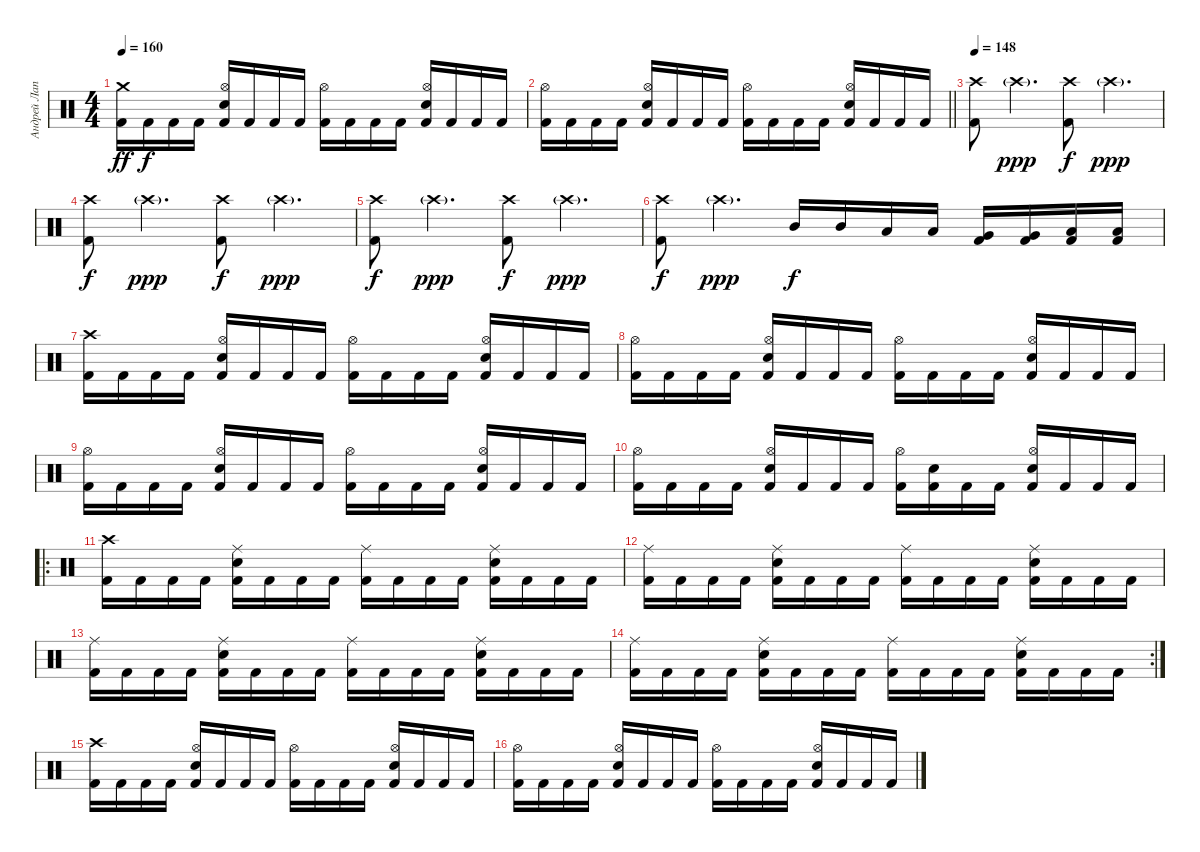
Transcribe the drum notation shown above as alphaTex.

\track ("Андрей Лаптев" "Андрей Лап") {instrument percussion}
\staff {score}
\articulation defaults
\ts (4 4)
\tempo 160
\clef neutral
\ks c
("Crash medium (hit)" "Kick (hit) 2").16{dy ff} "Kick (hit) 2".16{dy f} "Kick (hit) 2".16 "Kick (hit) 2".16 ("Hi-Hat (open)" "Electric Snare (hit)" "Kick (hit) 2").16 "Kick (hit) 2".16 "Kick (hit) 2".16 "Kick (hit) 2".16 ("Hi-Hat (open)" "Kick (hit) 2").16 "Kick (hit) 2".16 "Kick (hit) 2".16 "Kick (hit) 2".16 ("Hi-Hat (open)" "Electric Snare (hit)" "Kick (hit) 2").16 "Kick (hit) 2".16 "Kick (hit) 2".16 "Kick (hit) 2".16 |
\barLineRight lightlight
("Hi-Hat (open)" "Kick (hit) 2").16 "Kick (hit) 2".16 "Kick (hit) 2".16 "Kick (hit) 2".16 ("Hi-Hat (open)" "Electric Snare (hit)" "Kick (hit) 2").16 "Kick (hit) 2".16 "Kick (hit) 2".16 "Kick (hit) 2".16 ("Hi-Hat (open)" "Kick (hit) 2").16 "Kick (hit) 2".16 "Kick (hit) 2".16 "Kick (hit) 2".16 ("Hi-Hat (open)" "Electric Snare (hit)" "Kick (hit) 2").16 "Kick (hit) 2".16 "Kick (hit) 2".16 "Kick (hit) 2".16 |
\section ("" "")
\tempo 148
("Crash high (hit)" "Kick (hit) 2").8 "Crash high (hit)"{g}.4{d dy ppp} ("Crash high (hit)" "Kick (hit) 2").8{dy f} "Crash high (hit)"{g}.4{d dy ppp} |
("Crash high (hit)" "Kick (hit) 2").8{dy f} "Crash high (hit)"{g}.4{d dy ppp} ("Crash high (hit)" "Kick (hit) 2").8{dy f} "Crash high (hit)"{g}.4{d dy ppp} |
("Crash high (hit)" "Kick (hit) 2").8{dy f} "Crash high (hit)"{g}.4{d dy ppp} ("Crash high (hit)" "Kick (hit) 2").8{dy f} "Crash high (hit)"{g}.4{d dy ppp} |
("Crash high (hit)" "Kick (hit) 2").8{dy f} "Crash high (hit)"{g}.4{d dy ppp} "Mid Tom (hit)".16{dy f} "Mid Tom (hit)".16 "Low Tom (hit)".16 "Low Tom (hit)".16 ("Very Low Tom (hit)" "Kick (hit) 2").16 ("Very Low Tom (hit)" "Kick (hit) 2").16 ("Low Floor Tom (hit)" "Kick (hit) 2").16 ("Low Floor Tom (hit)" "Kick (hit) 2").16 |
("Crash high (hit)" "Kick (hit) 2").16 "Kick (hit) 2".16 "Kick (hit) 2".16 "Kick (hit) 2".16 ("Hi-Hat (open)" "Electric Snare (hit)" "Kick (hit) 2").16 "Kick (hit) 2".16 "Kick (hit) 2".16 "Kick (hit) 2".16 ("Hi-Hat (open)" "Kick (hit) 2").16 "Kick (hit) 2".16 "Kick (hit) 2".16 "Kick (hit) 2".16 ("Hi-Hat (open)" "Electric Snare (hit)" "Kick (hit) 2").16 "Kick (hit) 2".16 "Kick (hit) 2".16 "Kick (hit) 2".16 |
("Hi-Hat (open)" "Kick (hit) 2").16 "Kick (hit) 2".16 "Kick (hit) 2".16 "Kick (hit) 2".16 ("Hi-Hat (open)" "Electric Snare (hit)" "Kick (hit) 2").16 "Kick (hit) 2".16 "Kick (hit) 2".16 "Kick (hit) 2".16 ("Hi-Hat (open)" "Kick (hit) 2").16 "Kick (hit) 2".16 "Kick (hit) 2".16 "Kick (hit) 2".16 ("Hi-Hat (open)" "Electric Snare (hit)" "Kick (hit) 2").16 "Kick (hit) 2".16 "Kick (hit) 2".16 "Kick (hit) 2".16 |
("Hi-Hat (open)" "Kick (hit) 2").16 "Kick (hit) 2".16 "Kick (hit) 2".16 "Kick (hit) 2".16 ("Hi-Hat (open)" "Electric Snare (hit)" "Kick (hit) 2").16 "Kick (hit) 2".16 "Kick (hit) 2".16 "Kick (hit) 2".16 ("Hi-Hat (open)" "Kick (hit) 2").16 "Kick (hit) 2".16 "Kick (hit) 2".16 "Kick (hit) 2".16 ("Hi-Hat (open)" "Electric Snare (hit)" "Kick (hit) 2").16 "Kick (hit) 2".16 "Kick (hit) 2".16 "Kick (hit) 2".16 |
("Hi-Hat (open)" "Kick (hit) 2").16 "Kick (hit) 2".16 "Kick (hit) 2".16 "Kick (hit) 2".16 ("Hi-Hat (open)" "Electric Snare (hit)" "Kick (hit) 2").16 "Kick (hit) 2".16 "Kick (hit) 2".16 "Kick (hit) 2".16 ("Hi-Hat (open)" "Kick (hit) 2").16 ("Electric Snare (hit)" "Kick (hit) 2").16 "Kick (hit) 2".16 "Kick (hit) 2".16 ("Hi-Hat (open)" "Electric Snare (hit)" "Kick (hit) 2").16 "Kick (hit) 2".16 "Kick (hit) 2".16 "Kick (hit) 2".16 |
\ro
("Crash high (hit)" "Kick (hit) 2").16 "Kick (hit) 2".16 "Kick (hit) 2".16 "Kick (hit) 2".16 ("Ride (middle)" "Electric Snare (hit)" "Kick (hit) 2").16 "Kick (hit) 2".16 "Kick (hit) 2".16 "Kick (hit) 2".16 ("Ride (middle)" "Kick (hit) 2").16 "Kick (hit) 2".16 "Kick (hit) 2".16 "Kick (hit) 2".16 ("Ride (middle)" "Electric Snare (hit)" "Kick (hit) 2").16 "Kick (hit) 2".16 "Kick (hit) 2".16 "Kick (hit) 2".16 |
("Ride (middle)" "Kick (hit) 2").16 "Kick (hit) 2".16 "Kick (hit) 2".16 "Kick (hit) 2".16 ("Ride (middle)" "Electric Snare (hit)" "Kick (hit) 2").16 "Kick (hit) 2".16 "Kick (hit) 2".16 "Kick (hit) 2".16 ("Ride (middle)" "Kick (hit) 2").16 "Kick (hit) 2".16 "Kick (hit) 2".16 "Kick (hit) 2".16 ("Ride (middle)" "Electric Snare (hit)" "Kick (hit) 2").16 "Kick (hit) 2".16 "Kick (hit) 2".16 "Kick (hit) 2".16 |
("Ride (middle)" "Kick (hit) 2").16 "Kick (hit) 2".16 "Kick (hit) 2".16 "Kick (hit) 2".16 ("Ride (middle)" "Electric Snare (hit)" "Kick (hit) 2").16 "Kick (hit) 2".16 "Kick (hit) 2".16 "Kick (hit) 2".16 ("Ride (middle)" "Kick (hit) 2").16 "Kick (hit) 2".16 "Kick (hit) 2".16 "Kick (hit) 2".16 ("Ride (middle)" "Electric Snare (hit)" "Kick (hit) 2").16 "Kick (hit) 2".16 "Kick (hit) 2".16 "Kick (hit) 2".16 |
\rc 2
("Ride (middle)" "Kick (hit) 2").16 "Kick (hit) 2".16 "Kick (hit) 2".16 "Kick (hit) 2".16 ("Ride (middle)" "Electric Snare (hit)" "Kick (hit) 2").16 "Kick (hit) 2".16 "Kick (hit) 2".16 "Kick (hit) 2".16 ("Ride (middle)" "Kick (hit) 2").16 "Kick (hit) 2".16 "Kick (hit) 2".16 "Kick (hit) 2".16 ("Ride (middle)" "Electric Snare (hit)" "Kick (hit) 2").16 "Kick (hit) 2".16 "Kick (hit) 2".16 "Kick (hit) 2".16 |
("Crash high (hit)" "Kick (hit) 2").16 "Kick (hit) 2".16 "Kick (hit) 2".16 "Kick (hit) 2".16 ("Hi-Hat (open)" "Electric Snare (hit)" "Kick (hit) 2").16 "Kick (hit) 2".16 "Kick (hit) 2".16 "Kick (hit) 2".16 ("Hi-Hat (open)" "Kick (hit) 2").16 "Kick (hit) 2".16 "Kick (hit) 2".16 "Kick (hit) 2".16 ("Hi-Hat (open)" "Electric Snare (hit)" "Kick (hit) 2").16 "Kick (hit) 2".16 "Kick (hit) 2".16 "Kick (hit) 2".16 |
("Hi-Hat (open)" "Kick (hit) 2").16 "Kick (hit) 2".16 "Kick (hit) 2".16 "Kick (hit) 2".16 ("Hi-Hat (open)" "Electric Snare (hit)" "Kick (hit) 2").16 "Kick (hit) 2".16 "Kick (hit) 2".16 "Kick (hit) 2".16 ("Hi-Hat (open)" "Kick (hit) 2").16 "Kick (hit) 2".16 "Kick (hit) 2".16 "Kick (hit) 2".16 ("Hi-Hat (open)" "Electric Snare (hit)" "Kick (hit) 2").16 "Kick (hit) 2".16 "Kick (hit) 2".16 "Kick (hit) 2".16
